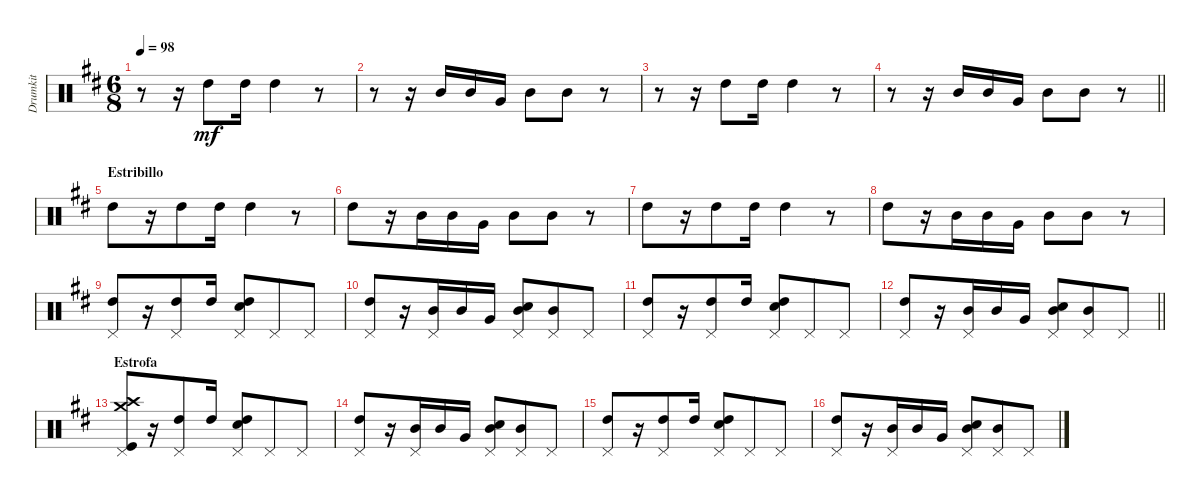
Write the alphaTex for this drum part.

\track ("Drumkit" "Drumkit") {instrument percussion}
\staff {score}
\articulation defaults
\ts (6 8)
\tempo 98
\clef neutral
\ks d
r.8{dy mf} r.16 "High Tom (hit)".8 "High Tom (hit)".16 "High Tom (hit)".4 r.8 |
r.8 r.16 "Mid Tom (hit)".16 "Mid Tom (hit)".16 "Very Low Tom (hit)".16 "Mid Tom (hit)".8 "Mid Tom (hit)".8 r.8 |
r.8 r.16 "High Tom (hit)".8 "High Tom (hit)".16 "High Tom (hit)".4 r.8 |
\barLineRight lightlight
r.8 r.16 "Mid Tom (hit)".16 "Mid Tom (hit)".16 "Very Low Tom (hit)".16 "Mid Tom (hit)".8 "Mid Tom (hit)".8 r.8 |
\section ("" "Estribillo")
"High Tom (hit)".8 r.16 "High Tom (hit)".8 "High Tom (hit)".16 "High Tom (hit)".4 r.8 |
"High Tom (hit)".8 r.16 "Mid Tom (hit)".16 "Mid Tom (hit)".16 "Very Low Tom (hit)".16 "Mid Tom (hit)".8 "Mid Tom (hit)".8 r.8 |
"High Tom (hit)".8 r.16 "High Tom (hit)".8 "High Tom (hit)".16 "High Tom (hit)".4 r.8 |
"High Tom (hit)".8 r.16 "Mid Tom (hit)".16 "Mid Tom (hit)".16 "Very Low Tom (hit)".16 "Mid Tom (hit)".8 "Mid Tom (hit)".8 r.8 |
("High Tom (hit)" "Pedal Hi-Hat (hit)").8 r.16 ("High Tom (hit)" "Pedal Hi-Hat (hit)").8 "High Tom (hit)".16 ("High Tom (hit)" "Snare (hit) 2" "Pedal Hi-Hat (hit)").8 "Pedal Hi-Hat (hit)".8 "Pedal Hi-Hat (hit)".8 |
("High Tom (hit)" "Pedal Hi-Hat (hit)").8 r.16 ("Mid Tom (hit)" "Pedal Hi-Hat (hit)").16 "Mid Tom (hit)".16 "Very Low Tom (hit)".16 ("Mid Tom (hit)" "Snare (hit) 2" "Pedal Hi-Hat (hit)").8 ("Mid Tom (hit)" "Pedal Hi-Hat (hit)").8 "Pedal Hi-Hat (hit)".8 |
("High Tom (hit)" "Pedal Hi-Hat (hit)").8 r.16 ("High Tom (hit)" "Pedal Hi-Hat (hit)").8 "High Tom (hit)".16 ("High Tom (hit)" "Snare (hit) 2" "Pedal Hi-Hat (hit)").8 "Pedal Hi-Hat (hit)".8 "Pedal Hi-Hat (hit)".8 |
\barLineRight lightlight
("High Tom (hit)" "Pedal Hi-Hat (hit)").8 r.16 ("Mid Tom (hit)" "Pedal Hi-Hat (hit)").16 "Mid Tom (hit)".16 "Very Low Tom (hit)".16 ("Mid Tom (hit)" "Snare (hit) 2" "Pedal Hi-Hat (hit)").8 ("Mid Tom (hit)" "Pedal Hi-Hat (hit)").8 "Pedal Hi-Hat (hit)".8 |
\section ("" "Estrofa")
("Pedal Hi-Hat (hit)" "Crash medium (hit)" "Crash high (hit)" "Kick (hit)").8 r.16 ("High Tom (hit)" "Pedal Hi-Hat (hit)").8 "High Tom (hit)".16 ("High Tom (hit)" "Snare (hit) 2" "Pedal Hi-Hat (hit)").8 "Pedal Hi-Hat (hit)".8 "Pedal Hi-Hat (hit)".8 |
("High Tom (hit)" "Pedal Hi-Hat (hit)").8 r.16 ("Mid Tom (hit)" "Pedal Hi-Hat (hit)").16 "Mid Tom (hit)".16 "Very Low Tom (hit)".16 ("Mid Tom (hit)" "Snare (hit) 2" "Pedal Hi-Hat (hit)").8 ("Mid Tom (hit)" "Pedal Hi-Hat (hit)").8 "Pedal Hi-Hat (hit)".8 |
("High Tom (hit)" "Pedal Hi-Hat (hit)").8 r.16 ("High Tom (hit)" "Pedal Hi-Hat (hit)").8 "High Tom (hit)".16 ("High Tom (hit)" "Snare (hit) 2" "Pedal Hi-Hat (hit)").8 "Pedal Hi-Hat (hit)".8 "Pedal Hi-Hat (hit)".8 |
("High Tom (hit)" "Pedal Hi-Hat (hit)").8 r.16 ("Mid Tom (hit)" "Pedal Hi-Hat (hit)").16 "Mid Tom (hit)".16 "Very Low Tom (hit)".16 ("Mid Tom (hit)" "Snare (hit) 2" "Pedal Hi-Hat (hit)").8 ("Mid Tom (hit)" "Pedal Hi-Hat (hit)").8 "Pedal Hi-Hat (hit)".8
